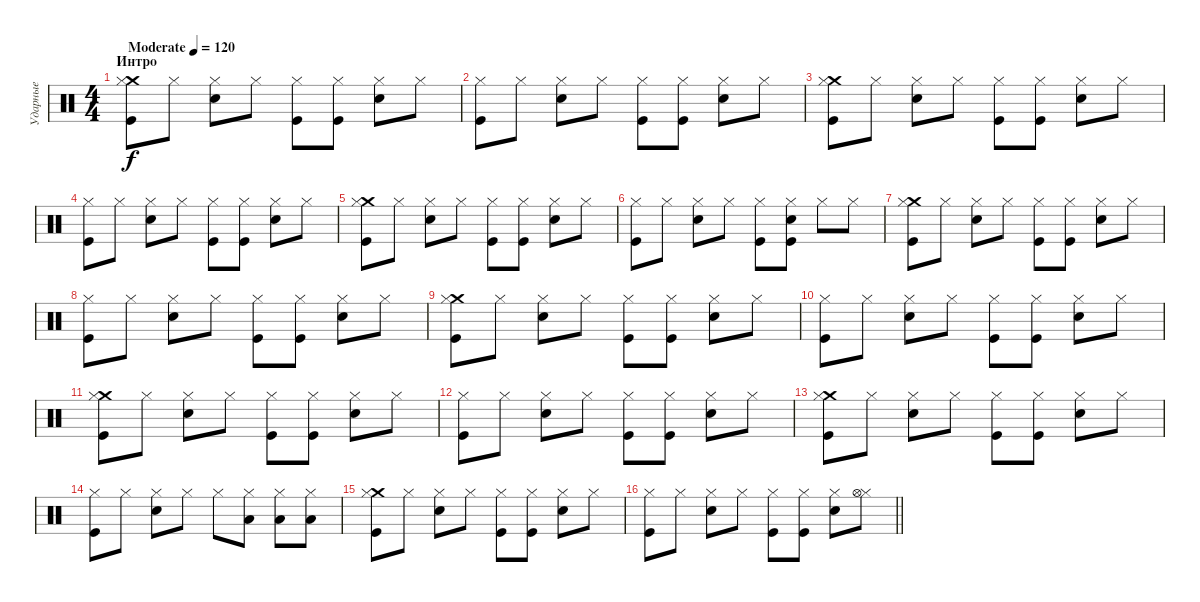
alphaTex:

\track ("Ударные" "Ударные") {instrument percussion}
\staff {score}
\articulation defaults
\ts (4 4)
\section ("" "Интро")
\tempo (120 "Moderate")
\clef neutral
\ks c
("Crash medium (hit)" "Hi-Hat (closed)" "Kick (hit)").8{dy f} "Hi-Hat (closed)".8 ("Snare (hit) 2" "Hi-Hat (closed)").8 "Hi-Hat (closed)".8 ("Kick (hit)" "Hi-Hat (closed)").8 ("Kick (hit)" "Hi-Hat (closed)").8 ("Snare (hit) 2" "Hi-Hat (closed)").8 "Hi-Hat (closed)".8 |
("Kick (hit)" "Hi-Hat (closed)").8 "Hi-Hat (closed)".8 ("Snare (hit) 2" "Hi-Hat (closed)").8 "Hi-Hat (closed)".8 ("Kick (hit)" "Hi-Hat (closed)").8 ("Kick (hit)" "Hi-Hat (closed)").8 ("Snare (hit) 2" "Hi-Hat (closed)").8 "Hi-Hat (closed)".8 |
("Crash medium (hit)" "Hi-Hat (closed)" "Kick (hit)").8 "Hi-Hat (closed)".8 ("Snare (hit) 2" "Hi-Hat (closed)").8 "Hi-Hat (closed)".8 ("Kick (hit)" "Hi-Hat (closed)").8 ("Kick (hit)" "Hi-Hat (closed)").8 ("Snare (hit) 2" "Hi-Hat (closed)").8 "Hi-Hat (closed)".8 |
("Kick (hit)" "Hi-Hat (closed)").8 "Hi-Hat (closed)".8 ("Snare (hit) 2" "Hi-Hat (closed)").8 "Hi-Hat (closed)".8 ("Kick (hit)" "Hi-Hat (closed)").8 ("Kick (hit)" "Hi-Hat (closed)").8 ("Snare (hit) 2" "Hi-Hat (closed)").8 "Hi-Hat (closed)".8 |
("Crash medium (hit)" "Hi-Hat (closed)" "Kick (hit)").8 "Hi-Hat (closed)".8 ("Snare (hit) 2" "Hi-Hat (closed)").8 "Hi-Hat (closed)".8 ("Kick (hit)" "Hi-Hat (closed)").8 ("Kick (hit)" "Hi-Hat (closed)").8 ("Snare (hit) 2" "Hi-Hat (closed)").8 "Hi-Hat (closed)".8 |
("Kick (hit)" "Hi-Hat (closed)").8 "Hi-Hat (closed)".8 ("Snare (hit) 2" "Hi-Hat (closed)").8 "Hi-Hat (closed)".8 ("Kick (hit)" "Hi-Hat (closed)").8 ("Kick (hit)" "Hi-Hat (closed)" "Snare (hit) 2").8 "Hi-Hat (closed)".8 "Hi-Hat (closed)".8 |
("Crash medium (hit)" "Hi-Hat (closed)" "Kick (hit)").8 "Hi-Hat (closed)".8 ("Snare (hit) 2" "Hi-Hat (closed)").8 "Hi-Hat (closed)".8 ("Kick (hit)" "Hi-Hat (closed)").8 ("Kick (hit)" "Hi-Hat (closed)").8 ("Snare (hit) 2" "Hi-Hat (closed)").8 "Hi-Hat (closed)".8 |
("Kick (hit)" "Hi-Hat (closed)").8 "Hi-Hat (closed)".8 ("Snare (hit) 2" "Hi-Hat (closed)").8 "Hi-Hat (closed)".8 ("Kick (hit)" "Hi-Hat (closed)").8 ("Kick (hit)" "Hi-Hat (closed)").8 ("Snare (hit) 2" "Hi-Hat (closed)").8 "Hi-Hat (closed)".8 |
("Crash medium (hit)" "Hi-Hat (closed)" "Kick (hit)").8 "Hi-Hat (closed)".8 ("Snare (hit) 2" "Hi-Hat (closed)").8 "Hi-Hat (closed)".8 ("Kick (hit)" "Hi-Hat (closed)").8 ("Kick (hit)" "Hi-Hat (closed)").8 ("Snare (hit) 2" "Hi-Hat (closed)").8 "Hi-Hat (closed)".8 |
("Kick (hit)" "Hi-Hat (closed)").8 "Hi-Hat (closed)".8 ("Snare (hit) 2" "Hi-Hat (closed)").8 "Hi-Hat (closed)".8 ("Kick (hit)" "Hi-Hat (closed)").8 ("Kick (hit)" "Hi-Hat (closed)").8 ("Snare (hit) 2" "Hi-Hat (closed)").8 "Hi-Hat (closed)".8 |
("Crash medium (hit)" "Hi-Hat (closed)" "Kick (hit)").8 "Hi-Hat (closed)".8 ("Snare (hit) 2" "Hi-Hat (closed)").8 "Hi-Hat (closed)".8 ("Kick (hit)" "Hi-Hat (closed)").8 ("Kick (hit)" "Hi-Hat (closed)").8 ("Snare (hit) 2" "Hi-Hat (closed)").8 "Hi-Hat (closed)".8 |
("Kick (hit)" "Hi-Hat (closed)").8 "Hi-Hat (closed)".8 ("Snare (hit) 2" "Hi-Hat (closed)").8 "Hi-Hat (closed)".8 ("Kick (hit)" "Hi-Hat (closed)").8 ("Kick (hit)" "Hi-Hat (closed)").8 ("Snare (hit) 2" "Hi-Hat (closed)").8 "Hi-Hat (closed)".8 |
("Crash medium (hit)" "Hi-Hat (closed)" "Kick (hit)").8 "Hi-Hat (closed)".8 ("Snare (hit) 2" "Hi-Hat (closed)").8 "Hi-Hat (closed)".8 ("Kick (hit)" "Hi-Hat (closed)").8 ("Kick (hit)" "Hi-Hat (closed)").8 ("Snare (hit) 2" "Hi-Hat (closed)").8 "Hi-Hat (closed)".8 |
("Kick (hit)" "Hi-Hat (closed)").8 "Hi-Hat (closed)".8 ("Snare (hit) 2" "Hi-Hat (closed)").8 "Hi-Hat (closed)".8 "Hi-Hat (closed)".8 ("Low Floor Tom (hit)" "Hi-Hat (closed)").8 ("Low Floor Tom (hit)" "Hi-Hat (closed)").8 ("Low Floor Tom (hit)" "Hi-Hat (closed)").8 |
("Crash medium (hit)" "Hi-Hat (closed)" "Kick (hit)").8 "Hi-Hat (closed)".8 ("Snare (hit) 2" "Hi-Hat (closed)").8 "Hi-Hat (closed)".8 ("Kick (hit)" "Hi-Hat (closed)").8 ("Kick (hit)" "Hi-Hat (closed)").8 ("Snare (hit) 2" "Hi-Hat (closed)").8 "Hi-Hat (closed)".8 |
\barLineRight lightlight
("Kick (hit)" "Hi-Hat (closed)").8 "Hi-Hat (closed)".8 ("Snare (hit) 2" "Hi-Hat (closed)").8 "Hi-Hat (closed)".8 ("Kick (hit)" "Hi-Hat (closed)").8 ("Kick (hit)" "Hi-Hat (closed)").8 ("Snare (hit) 2" "Hi-Hat (closed)").8 ("Hi-Hat (closed)" "Hi-Hat (open)").8
